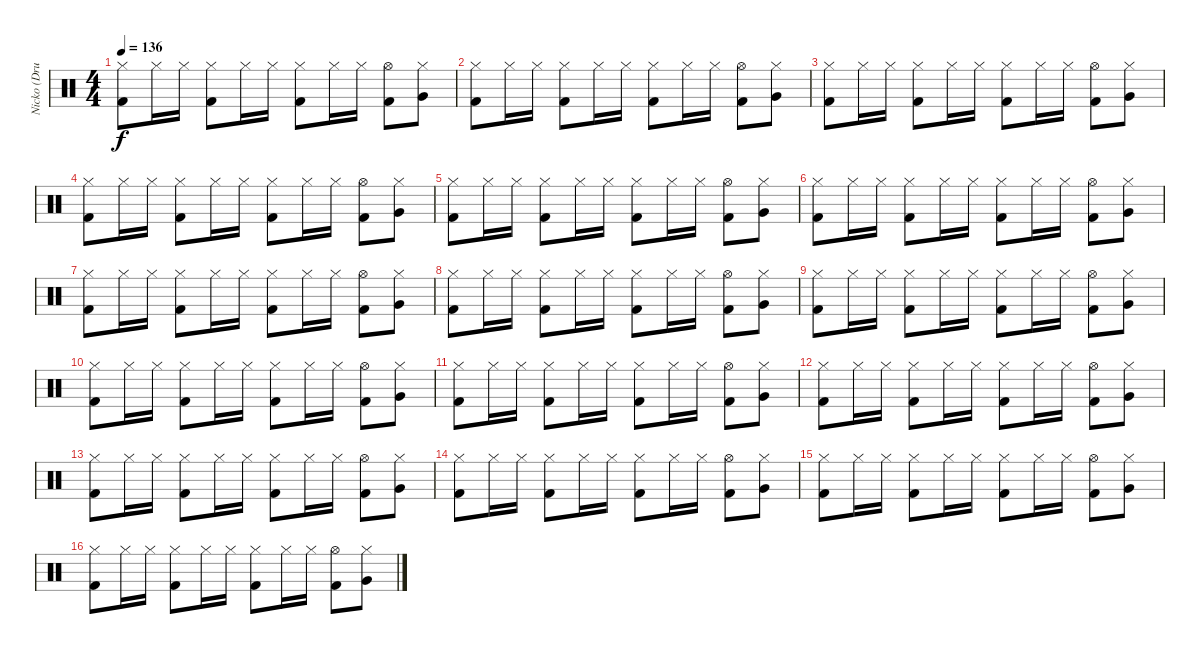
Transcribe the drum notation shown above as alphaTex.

\track ("Nicko (Drums)" "Nicko (Dru") {instrument percussion}
\staff {score}
\articulation defaults
\ts (4 4)
\tempo 136
\clef neutral
\ks c
("Hi-Hat (closed)" "Kick (hit) 2").8{dy f} "Hi-Hat (closed)".16 "Hi-Hat (closed)".16 ("Hi-Hat (closed)" "Kick (hit) 2").8 "Hi-Hat (closed)".16 "Hi-Hat (closed)".16 ("Hi-Hat (closed)" "Kick (hit) 2").8 "Hi-Hat (closed)".16 "Hi-Hat (closed)".16 ("Hi-Hat (open)" "Kick (hit) 2").8 ("Hi-Hat (closed)" "Very Low Tom (hit)").8 |
("Hi-Hat (closed)" "Kick (hit) 2").8 "Hi-Hat (closed)".16 "Hi-Hat (closed)".16 ("Hi-Hat (closed)" "Kick (hit) 2").8 "Hi-Hat (closed)".16 "Hi-Hat (closed)".16 ("Hi-Hat (closed)" "Kick (hit) 2").8 "Hi-Hat (closed)".16 "Hi-Hat (closed)".16 ("Hi-Hat (open)" "Kick (hit) 2").8 ("Hi-Hat (closed)" "Very Low Tom (hit)").8 |
("Hi-Hat (closed)" "Kick (hit) 2").8 "Hi-Hat (closed)".16 "Hi-Hat (closed)".16 ("Hi-Hat (closed)" "Kick (hit) 2").8 "Hi-Hat (closed)".16 "Hi-Hat (closed)".16 ("Hi-Hat (closed)" "Kick (hit) 2").8 "Hi-Hat (closed)".16 "Hi-Hat (closed)".16 ("Hi-Hat (open)" "Kick (hit) 2").8 ("Hi-Hat (closed)" "Very Low Tom (hit)").8 |
("Hi-Hat (closed)" "Kick (hit) 2").8 "Hi-Hat (closed)".16 "Hi-Hat (closed)".16 ("Hi-Hat (closed)" "Kick (hit) 2").8 "Hi-Hat (closed)".16 "Hi-Hat (closed)".16 ("Hi-Hat (closed)" "Kick (hit) 2").8 "Hi-Hat (closed)".16 "Hi-Hat (closed)".16 ("Hi-Hat (open)" "Kick (hit) 2").8 ("Hi-Hat (closed)" "Very Low Tom (hit)").8 |
("Hi-Hat (closed)" "Kick (hit) 2").8 "Hi-Hat (closed)".16 "Hi-Hat (closed)".16 ("Hi-Hat (closed)" "Kick (hit) 2").8 "Hi-Hat (closed)".16 "Hi-Hat (closed)".16 ("Hi-Hat (closed)" "Kick (hit) 2").8 "Hi-Hat (closed)".16 "Hi-Hat (closed)".16 ("Hi-Hat (open)" "Kick (hit) 2").8 ("Hi-Hat (closed)" "Very Low Tom (hit)").8 |
("Hi-Hat (closed)" "Kick (hit) 2").8 "Hi-Hat (closed)".16 "Hi-Hat (closed)".16 ("Hi-Hat (closed)" "Kick (hit) 2").8 "Hi-Hat (closed)".16 "Hi-Hat (closed)".16 ("Hi-Hat (closed)" "Kick (hit) 2").8 "Hi-Hat (closed)".16 "Hi-Hat (closed)".16 ("Hi-Hat (open)" "Kick (hit) 2").8 ("Hi-Hat (closed)" "Very Low Tom (hit)").8 |
("Hi-Hat (closed)" "Kick (hit) 2").8 "Hi-Hat (closed)".16 "Hi-Hat (closed)".16 ("Hi-Hat (closed)" "Kick (hit) 2").8 "Hi-Hat (closed)".16 "Hi-Hat (closed)".16 ("Hi-Hat (closed)" "Kick (hit) 2").8 "Hi-Hat (closed)".16 "Hi-Hat (closed)".16 ("Hi-Hat (open)" "Kick (hit) 2").8 ("Hi-Hat (closed)" "Very Low Tom (hit)").8 |
("Hi-Hat (closed)" "Kick (hit) 2").8 "Hi-Hat (closed)".16 "Hi-Hat (closed)".16 ("Hi-Hat (closed)" "Kick (hit) 2").8 "Hi-Hat (closed)".16 "Hi-Hat (closed)".16 ("Hi-Hat (closed)" "Kick (hit) 2").8 "Hi-Hat (closed)".16 "Hi-Hat (closed)".16 ("Hi-Hat (open)" "Kick (hit) 2").8 ("Hi-Hat (closed)" "Very Low Tom (hit)").8 |
("Hi-Hat (closed)" "Kick (hit) 2").8 "Hi-Hat (closed)".16 "Hi-Hat (closed)".16 ("Hi-Hat (closed)" "Kick (hit) 2").8 "Hi-Hat (closed)".16 "Hi-Hat (closed)".16 ("Hi-Hat (closed)" "Kick (hit) 2").8 "Hi-Hat (closed)".16 "Hi-Hat (closed)".16 ("Hi-Hat (open)" "Kick (hit) 2").8 ("Hi-Hat (closed)" "Very Low Tom (hit)").8 |
("Hi-Hat (closed)" "Kick (hit) 2").8 "Hi-Hat (closed)".16 "Hi-Hat (closed)".16 ("Hi-Hat (closed)" "Kick (hit) 2").8 "Hi-Hat (closed)".16 "Hi-Hat (closed)".16 ("Hi-Hat (closed)" "Kick (hit) 2").8 "Hi-Hat (closed)".16 "Hi-Hat (closed)".16 ("Hi-Hat (open)" "Kick (hit) 2").8 ("Hi-Hat (closed)" "Very Low Tom (hit)").8 |
("Hi-Hat (closed)" "Kick (hit) 2").8 "Hi-Hat (closed)".16 "Hi-Hat (closed)".16 ("Hi-Hat (closed)" "Kick (hit) 2").8 "Hi-Hat (closed)".16 "Hi-Hat (closed)".16 ("Hi-Hat (closed)" "Kick (hit) 2").8 "Hi-Hat (closed)".16 "Hi-Hat (closed)".16 ("Hi-Hat (open)" "Kick (hit) 2").8 ("Hi-Hat (closed)" "Very Low Tom (hit)").8 |
("Hi-Hat (closed)" "Kick (hit) 2").8 "Hi-Hat (closed)".16 "Hi-Hat (closed)".16 ("Hi-Hat (closed)" "Kick (hit) 2").8 "Hi-Hat (closed)".16 "Hi-Hat (closed)".16 ("Hi-Hat (closed)" "Kick (hit) 2").8 "Hi-Hat (closed)".16 "Hi-Hat (closed)".16 ("Hi-Hat (open)" "Kick (hit) 2").8 ("Hi-Hat (closed)" "Very Low Tom (hit)").8 |
("Hi-Hat (closed)" "Kick (hit) 2").8 "Hi-Hat (closed)".16 "Hi-Hat (closed)".16 ("Hi-Hat (closed)" "Kick (hit) 2").8 "Hi-Hat (closed)".16 "Hi-Hat (closed)".16 ("Hi-Hat (closed)" "Kick (hit) 2").8 "Hi-Hat (closed)".16 "Hi-Hat (closed)".16 ("Hi-Hat (open)" "Kick (hit) 2").8 ("Hi-Hat (closed)" "Very Low Tom (hit)").8 |
("Hi-Hat (closed)" "Kick (hit) 2").8 "Hi-Hat (closed)".16 "Hi-Hat (closed)".16 ("Hi-Hat (closed)" "Kick (hit) 2").8 "Hi-Hat (closed)".16 "Hi-Hat (closed)".16 ("Hi-Hat (closed)" "Kick (hit) 2").8 "Hi-Hat (closed)".16 "Hi-Hat (closed)".16 ("Hi-Hat (open)" "Kick (hit) 2").8 ("Hi-Hat (closed)" "Very Low Tom (hit)").8 |
("Hi-Hat (closed)" "Kick (hit) 2").8 "Hi-Hat (closed)".16 "Hi-Hat (closed)".16 ("Hi-Hat (closed)" "Kick (hit) 2").8 "Hi-Hat (closed)".16 "Hi-Hat (closed)".16 ("Hi-Hat (closed)" "Kick (hit) 2").8 "Hi-Hat (closed)".16 "Hi-Hat (closed)".16 ("Hi-Hat (open)" "Kick (hit) 2").8 ("Hi-Hat (closed)" "Very Low Tom (hit)").8 |
("Hi-Hat (closed)" "Kick (hit) 2").8 "Hi-Hat (closed)".16 "Hi-Hat (closed)".16 ("Hi-Hat (closed)" "Kick (hit) 2").8 "Hi-Hat (closed)".16 "Hi-Hat (closed)".16 ("Hi-Hat (closed)" "Kick (hit) 2").8 "Hi-Hat (closed)".16 "Hi-Hat (closed)".16 ("Hi-Hat (open)" "Kick (hit) 2").8 ("Hi-Hat (closed)" "Very Low Tom (hit)").8
